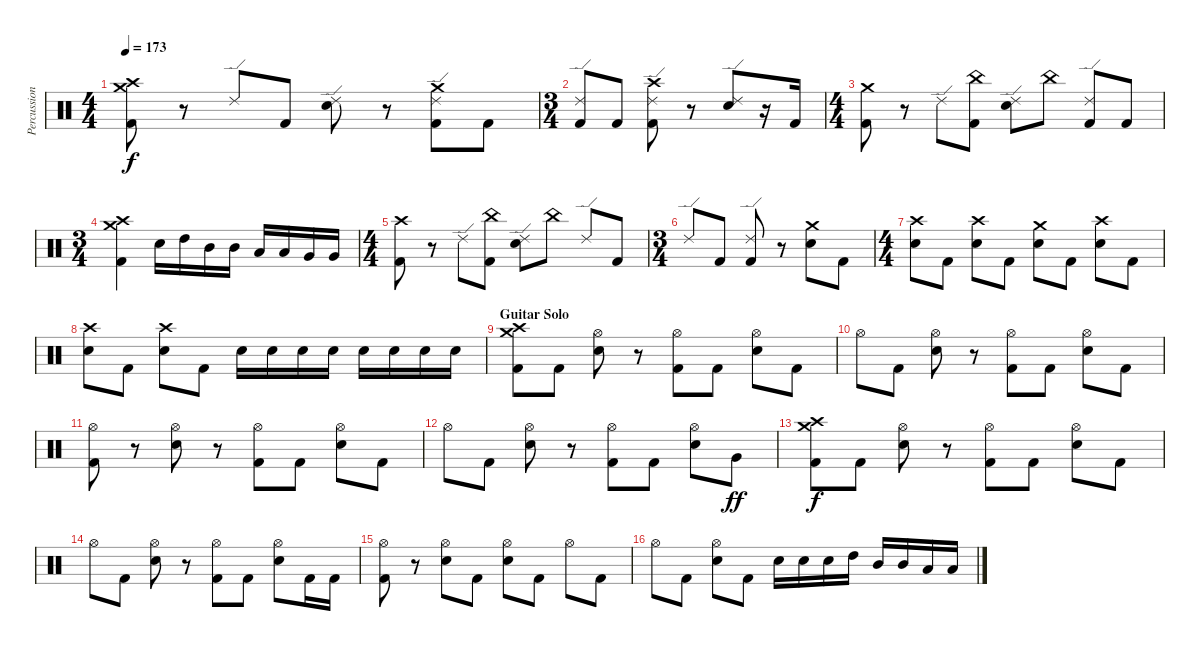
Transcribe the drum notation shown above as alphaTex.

\track ("Percussions" "Percussion") {instrument percussion}
\staff {score}
\articulation defaults
\ts (4 4)
\tempo 173
\clef neutral
\ks c
("Crash high (hit)" "Crash medium (hit)" "Kick (hit) 2").8{dy f} r.8 "Ride (edge) 2".8 "Kick (hit) 2".8 ("Ride (edge) 2" "Electric Snare (hit)").8 r.8 ("Crash medium (hit)" "Ride (edge) 2" "Kick (hit) 2").8 "Kick (hit) 2".8 |
\ts (3 4)
("Ride (edge) 2" "Kick (hit) 2").8 "Kick (hit) 2".8 ("Crash high (hit)" "Ride (edge) 2" "Kick (hit) 2").8 r.8 ("Ride (edge) 2" "Electric Snare (hit)").8 r.16 "Kick (hit) 2".16 |
\ts (4 4)
("Crash medium (hit)" "Kick (hit) 2").8 r.8 "Ride (edge) 2".8 ("China (hit)" "Kick (hit) 2").8 ("Ride (edge) 2" "Electric Snare (hit)").8 "China (hit)".8 ("Ride (edge) 2" "Kick (hit) 2").8 "Kick (hit) 2".8 |
\ts (3 4)
("Crash high (hit)" "Crash medium (hit)" "Kick (hit) 2").4 "Electric Snare (hit)".16 "High Tom (hit)".16 "Mid Tom (hit)".16 "Mid Tom (hit)".16 "Low Tom (hit)".16 "Low Tom (hit)".16 "Very Low Tom (hit)".16 "Very Low Tom (hit)".16 |
\ts (4 4)
("Crash high (hit)" "Kick (hit) 2").8 r.8 "Ride (edge) 2".8 ("China (hit)" "Kick (hit) 2").8 ("Ride (edge) 2" "Electric Snare (hit)").8 "China (hit)".8 "Ride (edge) 2".8 "Kick (hit) 2".8 |
\ts (3 4)
"Ride (edge) 2".8 "Kick (hit) 2".8 ("Ride (edge) 2" "Kick (hit) 2").8 r.8 ("Crash medium (hit)" "Electric Snare (hit)").8 "Kick (hit) 2".8 |
\ts (4 4)
("Crash high (hit)" "Electric Snare (hit)").8 "Kick (hit) 2".8 ("Crash high (hit)" "Electric Snare (hit)").8 "Kick (hit) 2".8 ("Crash medium (hit)" "Electric Snare (hit)").8 "Kick (hit) 2".8 ("Crash high (hit)" "Electric Snare (hit)").8 "Kick (hit) 2".8 |
("Crash high (hit)" "Electric Snare (hit)").8 "Kick (hit) 2".8 ("Crash high (hit)" "Electric Snare (hit)").8 "Kick (hit) 2".8 "Electric Snare (hit)".16 "Electric Snare (hit)".16 "Electric Snare (hit)".16 "Electric Snare (hit)".16 "Electric Snare (hit)".16 "Electric Snare (hit)".16 "Electric Snare (hit)".16 "Electric Snare (hit)".16 |
\section ("" "Guitar Solo")
("Crash high (hit)" "Crash medium (hit)" "Kick (hit) 2").8 "Kick (hit) 2".8 ("Hi-Hat (open)" "Electric Snare (hit)").8 r.8 ("Hi-Hat (open)" "Kick (hit) 2").8 "Kick (hit) 2".8 ("Hi-Hat (open)" "Electric Snare (hit)").8 "Kick (hit) 2".8 |
"Hi-Hat (open)".8 "Kick (hit) 2".8 ("Hi-Hat (open)" "Electric Snare (hit)").8 r.8 ("Hi-Hat (open)" "Kick (hit) 2").8 "Kick (hit) 2".8 ("Hi-Hat (open)" "Electric Snare (hit)").8 "Kick (hit) 2".8 |
("Hi-Hat (open)" "Kick (hit) 2").8 r.8 ("Hi-Hat (open)" "Electric Snare (hit)").8 r.8 ("Hi-Hat (open)" "Kick (hit) 2").8 "Kick (hit) 2".8 ("Hi-Hat (open)" "Electric Snare (hit)").8 "Kick (hit) 2".8 |
"Hi-Hat (open)".8 "Kick (hit) 2".8 ("Hi-Hat (open)" "Electric Snare (hit)").8 r.8 ("Hi-Hat (open)" "Kick (hit) 2").8 "Kick (hit) 2".8 ("Hi-Hat (open)" "Electric Snare (hit)").8 "Very Low Tom (hit)".8{dy ff} |
("Crash high (hit)" "Crash medium (hit)" "Kick (hit) 2").8{dy f} "Kick (hit) 2".8 ("Hi-Hat (open)" "Electric Snare (hit)").8 r.8 ("Hi-Hat (open)" "Kick (hit) 2").8 "Kick (hit) 2".8 ("Hi-Hat (open)" "Electric Snare (hit)").8 "Kick (hit) 2".8 |
"Hi-Hat (open)".8 "Kick (hit) 2".8 ("Hi-Hat (open)" "Electric Snare (hit)").8 r.8 ("Hi-Hat (open)" "Kick (hit) 2").8 "Kick (hit) 2".8 ("Hi-Hat (open)" "Electric Snare (hit)").8 "Kick (hit) 2".16 "Kick (hit) 2".16 |
("Hi-Hat (open)" "Kick (hit) 2").8 r.8 ("Hi-Hat (open)" "Electric Snare (hit)").8 "Kick (hit) 2".8 ("Hi-Hat (open)" "Electric Snare (hit)").8 "Kick (hit) 2".8 "Hi-Hat (open)".8 "Kick (hit) 2".8 |
"Hi-Hat (open)".8 "Kick (hit) 2".8 ("Hi-Hat (open)" "Electric Snare (hit)").8 "Kick (hit) 2".8 "Electric Snare (hit)".16 "Electric Snare (hit)".16 "Electric Snare (hit)".16 "High Tom (hit)".16 "Mid Tom (hit)".16 "Mid Tom (hit)".16 "Low Tom (hit)".16 "Low Tom (hit)".16
